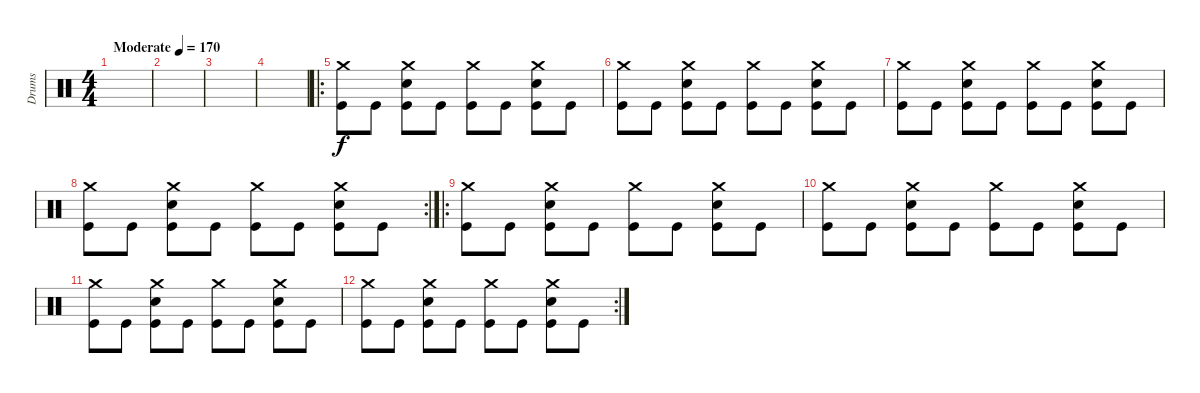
\track ("Drums" "Drums") {instrument percussion}
\staff {score}
\articulation defaults
\ts (4 4)
\tempo (170 "Moderate")
\clef neutral
\ks c
|
|
|
|
\ro
("Crash medium (hit)" "Kick (hit)").8 "Kick (hit)".8 ("Crash medium (hit)" "Snare (hit) 2" "Kick (hit)").8 "Kick (hit)".8 ("Crash medium (hit)" "Kick (hit)").8 "Kick (hit)".8 ("Crash medium (hit)" "Snare (hit) 2" "Kick (hit)").8 "Kick (hit)".8 |
("Crash medium (hit)" "Kick (hit)").8 "Kick (hit)".8 ("Crash medium (hit)" "Snare (hit) 2" "Kick (hit)").8 "Kick (hit)".8 ("Crash medium (hit)" "Kick (hit)").8 "Kick (hit)".8 ("Crash medium (hit)" "Snare (hit) 2" "Kick (hit)").8 "Kick (hit)".8 |
("Crash medium (hit)" "Kick (hit)").8 "Kick (hit)".8 ("Crash medium (hit)" "Snare (hit) 2" "Kick (hit)").8 "Kick (hit)".8 ("Crash medium (hit)" "Kick (hit)").8 "Kick (hit)".8 ("Crash medium (hit)" "Snare (hit) 2" "Kick (hit)").8 "Kick (hit)".8 |
\rc 2
("Crash medium (hit)" "Kick (hit)").8 "Kick (hit)".8 ("Crash medium (hit)" "Snare (hit) 2" "Kick (hit)").8 "Kick (hit)".8 ("Crash medium (hit)" "Kick (hit)").8 "Kick (hit)".8 ("Crash medium (hit)" "Snare (hit) 2" "Kick (hit)").8 "Kick (hit)".8 |
\ro
("Crash medium (hit)" "Kick (hit)").8 "Kick (hit)".8 ("Crash medium (hit)" "Snare (hit) 2" "Kick (hit)").8 "Kick (hit)".8 ("Crash medium (hit)" "Kick (hit)").8 "Kick (hit)".8 ("Crash medium (hit)" "Snare (hit) 2" "Kick (hit)").8 "Kick (hit)".8 |
("Crash medium (hit)" "Kick (hit)").8 "Kick (hit)".8 ("Crash medium (hit)" "Snare (hit) 2" "Kick (hit)").8 "Kick (hit)".8 ("Crash medium (hit)" "Kick (hit)").8 "Kick (hit)".8 ("Crash medium (hit)" "Snare (hit) 2" "Kick (hit)").8 "Kick (hit)".8 |
("Crash medium (hit)" "Kick (hit)").8 "Kick (hit)".8 ("Crash medium (hit)" "Snare (hit) 2" "Kick (hit)").8 "Kick (hit)".8 ("Crash medium (hit)" "Kick (hit)").8 "Kick (hit)".8 ("Crash medium (hit)" "Snare (hit) 2" "Kick (hit)").8 "Kick (hit)".8 |
\rc 2
("Crash medium (hit)" "Kick (hit)").8 "Kick (hit)".8 ("Crash medium (hit)" "Snare (hit) 2" "Kick (hit)").8 "Kick (hit)".8 ("Crash medium (hit)" "Kick (hit)").8 "Kick (hit)".8 ("Crash medium (hit)" "Snare (hit) 2" "Kick (hit)").8 "Kick (hit)".8
